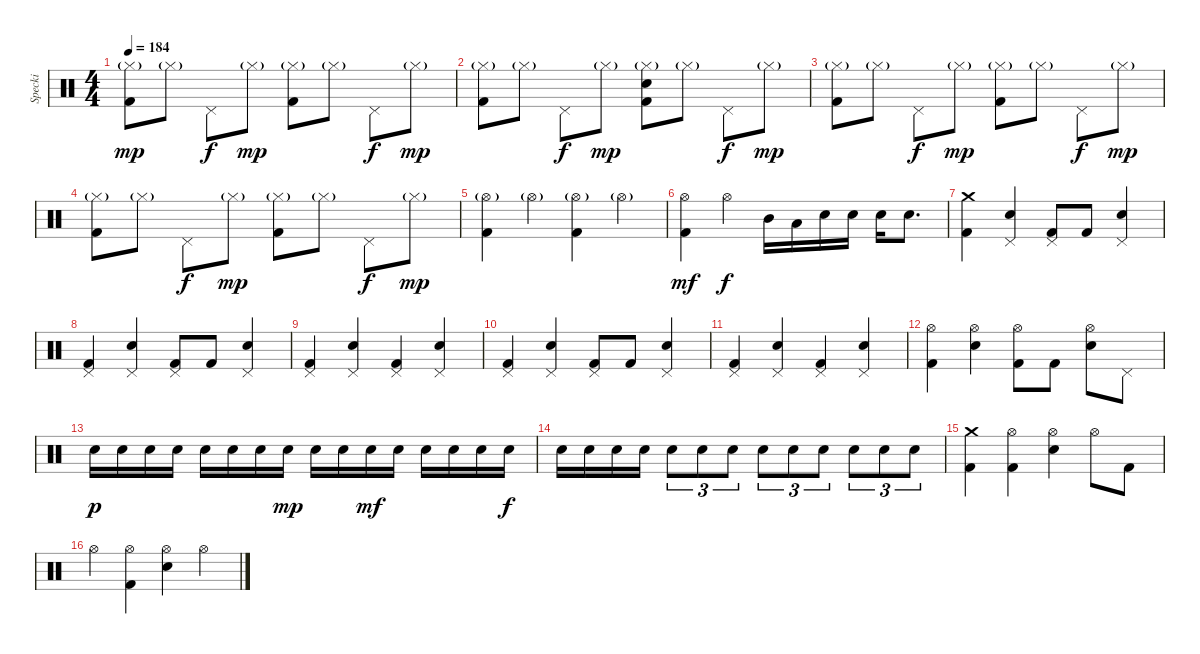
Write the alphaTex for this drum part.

\track ("Specki" "Specki") {instrument percussion}
\staff {score}
\articulation defaults
\ts (4 4)
\tempo 184
\clef neutral
\ks c
("Hi-Hat (closed)"{g} "Kick (hit) 2").8{dy mp} "Hi-Hat (closed)"{g}.8 "Pedal Hi-Hat (hit)".8{dy f} "Hi-Hat (closed)"{g}.8{dy mp} ("Hi-Hat (closed)"{g} "Kick (hit) 2").8 "Hi-Hat (closed)"{g}.8 "Pedal Hi-Hat (hit)".8{dy f} "Hi-Hat (closed)"{g}.8{dy mp} |
("Hi-Hat (closed)"{g} "Kick (hit) 2").8 "Hi-Hat (closed)"{g}.8 "Pedal Hi-Hat (hit)".8{dy f} "Hi-Hat (closed)"{g}.8{dy mp} ("Hi-Hat (closed)"{g} "Electric Snare (hit)" "Kick (hit) 2").8 "Hi-Hat (closed)"{g}.8 "Pedal Hi-Hat (hit)".8{dy f} "Hi-Hat (closed)"{g}.8{dy mp} |
("Hi-Hat (closed)"{g} "Kick (hit) 2").8 "Hi-Hat (closed)"{g}.8 "Pedal Hi-Hat (hit)".8{dy f} "Hi-Hat (closed)"{g}.8{dy mp} ("Hi-Hat (closed)"{g} "Kick (hit) 2").8 "Hi-Hat (closed)"{g}.8 "Pedal Hi-Hat (hit)".8{dy f} "Hi-Hat (closed)"{g}.8{dy mp} |
("Hi-Hat (closed)"{g} "Kick (hit) 2").8 "Hi-Hat (closed)"{g}.8 "Pedal Hi-Hat (hit)".8{dy f} "Hi-Hat (closed)"{g}.8{dy mp} ("Hi-Hat (closed)"{g} "Kick (hit) 2").8 "Hi-Hat (closed)"{g}.8 "Pedal Hi-Hat (hit)".8{dy f} "Hi-Hat (closed)"{g}.8{dy mp} |
("Hi-Hat (open)"{g} "Kick (hit) 2").4 "Hi-Hat (open)"{g}.4 ("Hi-Hat (open)"{g} "Kick (hit) 2").4 "Hi-Hat (open)"{g}.4 |
("Hi-Hat (open)" "Kick (hit) 2").4{dy mf} "Hi-Hat (open)".4{dy f} "Mid Tom (hit)".16 "Low Tom (hit)".16 "Electric Snare (hit)".16 "Electric Snare (hit)".16 "Electric Snare (hit)".16 "Electric Snare (hit)".8{d} |
("Crash medium (hit)" "Kick (hit) 2").4 ("Pedal Hi-Hat (hit)" "Electric Snare (hit)").4 ("Pedal Hi-Hat (hit)" "Kick (hit) 2").8 "Kick (hit) 2".8 ("Pedal Hi-Hat (hit)" "Electric Snare (hit)").4 |
("Pedal Hi-Hat (hit)" "Kick (hit) 2").4 ("Pedal Hi-Hat (hit)" "Electric Snare (hit)").4 ("Pedal Hi-Hat (hit)" "Kick (hit) 2").8 "Kick (hit) 2".8 ("Pedal Hi-Hat (hit)" "Electric Snare (hit)").4 |
("Pedal Hi-Hat (hit)" "Kick (hit) 2").4 ("Pedal Hi-Hat (hit)" "Electric Snare (hit)").4 ("Pedal Hi-Hat (hit)" "Kick (hit) 2").4 ("Pedal Hi-Hat (hit)" "Electric Snare (hit)").4 |
("Pedal Hi-Hat (hit)" "Kick (hit) 2").4 ("Pedal Hi-Hat (hit)" "Electric Snare (hit)").4 ("Pedal Hi-Hat (hit)" "Kick (hit) 2").8 "Kick (hit) 2".8 ("Pedal Hi-Hat (hit)" "Electric Snare (hit)").4 |
("Pedal Hi-Hat (hit)" "Kick (hit) 2").4 ("Pedal Hi-Hat (hit)" "Electric Snare (hit)").4 ("Pedal Hi-Hat (hit)" "Kick (hit) 2").4 ("Pedal Hi-Hat (hit)" "Electric Snare (hit)").4 |
("Hi-Hat (open)" "Kick (hit) 2").4 ("Hi-Hat (open)" "Electric Snare (hit)").4 ("Hi-Hat (open)" "Kick (hit) 2").8 "Kick (hit) 2".8 ("Hi-Hat (open)" "Electric Snare (hit)").8 "Pedal Hi-Hat (hit)".8 |
"Electric Snare (hit)".16{dy p} "Electric Snare (hit)".16 "Electric Snare (hit)".16 "Electric Snare (hit)".16 "Electric Snare (hit)".16 "Electric Snare (hit)".16 "Electric Snare (hit)".16 "Electric Snare (hit)".16{dy mp} "Electric Snare (hit)".16 "Electric Snare (hit)".16 "Electric Snare (hit)".16{dy mf} "Electric Snare (hit)".16 "Electric Snare (hit)".16 "Electric Snare (hit)".16 "Electric Snare (hit)".16 "Electric Snare (hit)".16{dy f} |
"Electric Snare (hit)".16 "Electric Snare (hit)".16 "Electric Snare (hit)".16 "Electric Snare (hit)".16 "Electric Snare (hit)".8{tu (3 2)} "Electric Snare (hit)".8{tu (3 2)} "Electric Snare (hit)".8{tu (3 2)} "Electric Snare (hit)".8{tu (3 2)} "Electric Snare (hit)".8{tu (3 2)} "Electric Snare (hit)".8{tu (3 2)} "Electric Snare (hit)".8{tu (3 2)} "Electric Snare (hit)".8{tu (3 2)} "Electric Snare (hit)".8{tu (3 2)} |
("Crash medium (hit)" "Kick (hit) 2").4 ("Hi-Hat (open)" "Kick (hit) 2").4 ("Hi-Hat (open)" "Electric Snare (hit)").4 "Hi-Hat (open)".8 "Kick (hit) 2".8 |
"Hi-Hat (open)".4 ("Hi-Hat (open)" "Kick (hit) 2").4 ("Hi-Hat (open)" "Electric Snare (hit)").4 "Hi-Hat (open)".4
